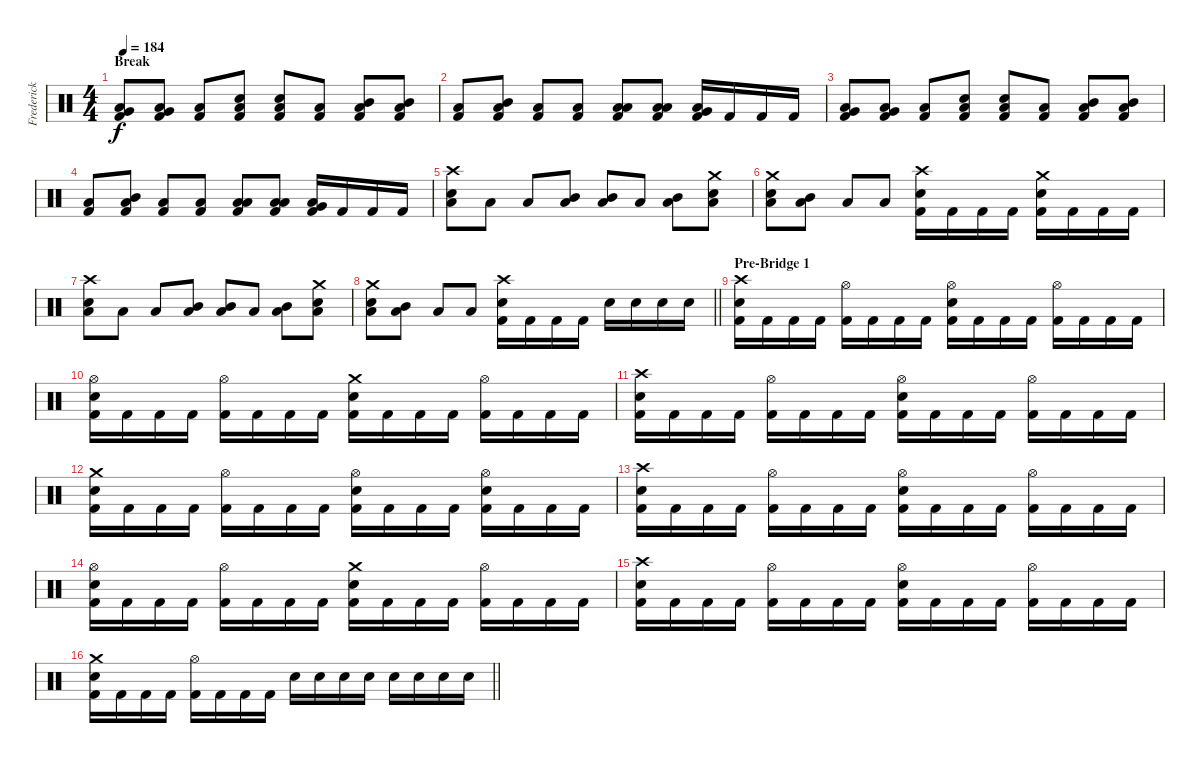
\track ("Frederick Ehmke" "Frederick ") {instrument percussion}
\staff {score}
\articulation defaults
\ts (4 4)
\section ("" "Break")
\tempo 184
\clef neutral
\ks c
("Kick (hit) 2" "Very Low Tom (hit)" "Low Floor Tom (hit)").8{dy f} ("Kick (hit) 2" "Very Low Tom (hit)" "Low Floor Tom (hit)").8 ("Kick (hit) 2" "Low Floor Tom (hit)").8 ("Electric Snare (hit)" "Kick (hit) 2" "Low Floor Tom (hit)").8 ("Electric Snare (hit)" "Kick (hit) 2" "Low Floor Tom (hit)").8 ("Kick (hit) 2" "Low Floor Tom (hit)").8 ("Kick (hit) 2" "Mid Tom (hit)" "Low Floor Tom (hit)").8 ("Kick (hit) 2" "Mid Tom (hit)" "Low Floor Tom (hit)").8 |
("Kick (hit) 2" "Low Floor Tom (hit)").8 ("Kick (hit) 2" "Mid Tom (hit)" "Low Floor Tom (hit)").8 ("Kick (hit) 2" "Low Floor Tom (hit)").8 ("Kick (hit) 2" "Low Floor Tom (hit)").8 ("Kick (hit) 2" "Low Tom (hit)" "Low Floor Tom (hit)").8 ("Kick (hit) 2" "Low Tom (hit)" "Low Floor Tom (hit)").8 ("Kick (hit) 2" "Very Low Tom (hit)" "Low Floor Tom (hit)").16 "Kick (hit) 2".16 "Kick (hit) 2".16 "Kick (hit) 2".16 |
("Kick (hit) 2" "Very Low Tom (hit)" "Low Floor Tom (hit)").8 ("Kick (hit) 2" "Very Low Tom (hit)" "Low Floor Tom (hit)").8 ("Kick (hit) 2" "Low Floor Tom (hit)").8 ("Electric Snare (hit)" "Kick (hit) 2" "Low Floor Tom (hit)").8 ("Electric Snare (hit)" "Kick (hit) 2" "Low Floor Tom (hit)").8 ("Kick (hit) 2" "Low Floor Tom (hit)").8 ("Kick (hit) 2" "Mid Tom (hit)" "Low Floor Tom (hit)").8 ("Kick (hit) 2" "Mid Tom (hit)" "Low Floor Tom (hit)").8 |
("Kick (hit) 2" "Low Floor Tom (hit)").8 ("Kick (hit) 2" "Mid Tom (hit)" "Low Floor Tom (hit)").8 ("Kick (hit) 2" "Low Floor Tom (hit)").8 ("Kick (hit) 2" "Low Floor Tom (hit)").8 ("Kick (hit) 2" "Low Tom (hit)" "Low Floor Tom (hit)").8 ("Kick (hit) 2" "Low Tom (hit)" "Low Floor Tom (hit)").8 ("Kick (hit) 2" "Very Low Tom (hit)" "Low Floor Tom (hit)").16 "Kick (hit) 2".16 "Kick (hit) 2".16 "Kick (hit) 2".16 |
("Electric Snare (hit)" "Crash high (hit)" "Low Floor Tom (hit)").8 "Low Floor Tom (hit)".8 "Low Floor Tom (hit)".8 ("Mid Tom (hit)" "Low Floor Tom (hit)").8 ("Mid Tom (hit)" "Low Floor Tom (hit)").8 "Low Floor Tom (hit)".8 ("Mid Tom (hit)" "Low Floor Tom (hit)").8 ("Electric Snare (hit)" "Crash medium (hit)" "Low Floor Tom (hit)").8 |
("Electric Snare (hit)" "Crash medium (hit)" "Low Floor Tom (hit)").8 ("Mid Tom (hit)" "Low Floor Tom (hit)").8 "Low Floor Tom (hit)".8 "Low Floor Tom (hit)".8 ("Electric Snare (hit)" "Kick (hit) 2" "Crash high (hit)").16 "Kick (hit) 2".16 "Kick (hit) 2".16 "Kick (hit) 2".16 ("Electric Snare (hit)" "Kick (hit) 2" "Crash medium (hit)").16 "Kick (hit) 2".16 "Kick (hit) 2".16 "Kick (hit) 2".16 |
("Electric Snare (hit)" "Crash high (hit)" "Low Floor Tom (hit)").8 "Low Floor Tom (hit)".8 "Low Floor Tom (hit)".8 ("Mid Tom (hit)" "Low Floor Tom (hit)").8 ("Mid Tom (hit)" "Low Floor Tom (hit)").8 "Low Floor Tom (hit)".8 ("Mid Tom (hit)" "Low Floor Tom (hit)").8 ("Electric Snare (hit)" "Crash medium (hit)" "Low Floor Tom (hit)").8 |
\barLineRight lightlight
("Electric Snare (hit)" "Crash medium (hit)" "Low Floor Tom (hit)").8 ("Mid Tom (hit)" "Low Floor Tom (hit)").8 "Low Floor Tom (hit)".8 "Low Floor Tom (hit)".8 ("Electric Snare (hit)" "Kick (hit) 2" "Crash high (hit)").16 "Kick (hit) 2".16 "Kick (hit) 2".16 "Kick (hit) 2".16 "Electric Snare (hit)".16 "Electric Snare (hit)".16 "Electric Snare (hit)".16 "Electric Snare (hit)".16 |
\section ("" "Pre-Bridge 1")
("Electric Snare (hit)" "Kick (hit) 2" "Crash high (hit)").16 "Kick (hit) 2".16 "Kick (hit) 2".16 "Kick (hit) 2".16 ("Kick (hit) 2" "Hi-Hat (open)").16 "Kick (hit) 2".16 "Kick (hit) 2".16 "Kick (hit) 2".16 ("Electric Snare (hit)" "Kick (hit) 2" "Hi-Hat (open)").16 "Kick (hit) 2".16 "Kick (hit) 2".16 "Kick (hit) 2".16 ("Kick (hit) 2" "Hi-Hat (open)").16 "Kick (hit) 2".16 "Kick (hit) 2".16 "Kick (hit) 2".16 |
("Electric Snare (hit)" "Kick (hit) 2" "Hi-Hat (open)").16 "Kick (hit) 2".16 "Kick (hit) 2".16 "Kick (hit) 2".16 ("Kick (hit) 2" "Hi-Hat (open)").16 "Kick (hit) 2".16 "Kick (hit) 2".16 "Kick (hit) 2".16 ("Electric Snare (hit)" "Kick (hit) 2" "Crash medium (hit)").16 "Kick (hit) 2".16 "Kick (hit) 2".16 "Kick (hit) 2".16 ("Kick (hit) 2" "Hi-Hat (open)").16 "Kick (hit) 2".16 "Kick (hit) 2".16 "Kick (hit) 2".16 |
("Electric Snare (hit)" "Kick (hit) 2" "Crash high (hit)").16 "Kick (hit) 2".16 "Kick (hit) 2".16 "Kick (hit) 2".16 ("Kick (hit) 2" "Hi-Hat (open)").16 "Kick (hit) 2".16 "Kick (hit) 2".16 "Kick (hit) 2".16 ("Electric Snare (hit)" "Kick (hit) 2" "Hi-Hat (open)").16 "Kick (hit) 2".16 "Kick (hit) 2".16 "Kick (hit) 2".16 ("Kick (hit) 2" "Hi-Hat (open)").16 "Kick (hit) 2".16 "Kick (hit) 2".16 "Kick (hit) 2".16 |
("Electric Snare (hit)" "Kick (hit) 2" "Crash medium (hit)").16 "Kick (hit) 2".16 "Kick (hit) 2".16 "Kick (hit) 2".16 ("Kick (hit) 2" "Hi-Hat (open)").16 "Kick (hit) 2".16 "Kick (hit) 2".16 "Kick (hit) 2".16 ("Electric Snare (hit)" "Kick (hit) 2" "Hi-Hat (open)").16 "Kick (hit) 2".16 "Kick (hit) 2".16 "Kick (hit) 2".16 ("Electric Snare (hit)" "Kick (hit) 2" "Hi-Hat (open)").16 "Kick (hit) 2".16 "Kick (hit) 2".16 "Kick (hit) 2".16 |
("Electric Snare (hit)" "Kick (hit) 2" "Crash high (hit)").16 "Kick (hit) 2".16 "Kick (hit) 2".16 "Kick (hit) 2".16 ("Kick (hit) 2" "Hi-Hat (open)").16 "Kick (hit) 2".16 "Kick (hit) 2".16 "Kick (hit) 2".16 ("Electric Snare (hit)" "Kick (hit) 2" "Hi-Hat (open)").16 "Kick (hit) 2".16 "Kick (hit) 2".16 "Kick (hit) 2".16 ("Kick (hit) 2" "Hi-Hat (open)").16 "Kick (hit) 2".16 "Kick (hit) 2".16 "Kick (hit) 2".16 |
("Electric Snare (hit)" "Kick (hit) 2" "Hi-Hat (open)").16 "Kick (hit) 2".16 "Kick (hit) 2".16 "Kick (hit) 2".16 ("Kick (hit) 2" "Hi-Hat (open)").16 "Kick (hit) 2".16 "Kick (hit) 2".16 "Kick (hit) 2".16 ("Electric Snare (hit)" "Kick (hit) 2" "Crash medium (hit)").16 "Kick (hit) 2".16 "Kick (hit) 2".16 "Kick (hit) 2".16 ("Kick (hit) 2" "Hi-Hat (open)").16 "Kick (hit) 2".16 "Kick (hit) 2".16 "Kick (hit) 2".16 |
("Electric Snare (hit)" "Kick (hit) 2" "Crash high (hit)").16 "Kick (hit) 2".16 "Kick (hit) 2".16 "Kick (hit) 2".16 ("Kick (hit) 2" "Hi-Hat (open)").16 "Kick (hit) 2".16 "Kick (hit) 2".16 "Kick (hit) 2".16 ("Electric Snare (hit)" "Kick (hit) 2" "Hi-Hat (open)").16 "Kick (hit) 2".16 "Kick (hit) 2".16 "Kick (hit) 2".16 ("Kick (hit) 2" "Hi-Hat (open)").16 "Kick (hit) 2".16 "Kick (hit) 2".16 "Kick (hit) 2".16 |
\barLineRight lightlight
("Electric Snare (hit)" "Kick (hit) 2" "Crash medium (hit)").16 "Kick (hit) 2".16 "Kick (hit) 2".16 "Kick (hit) 2".16 ("Kick (hit) 2" "Hi-Hat (open)").16 "Kick (hit) 2".16 "Kick (hit) 2".16 "Kick (hit) 2".16 "Electric Snare (hit)".16 "Electric Snare (hit)".16 "Electric Snare (hit)".16 "Electric Snare (hit)".16 "Electric Snare (hit)".16 "Electric Snare (hit)".16 "Electric Snare (hit)".16 "Electric Snare (hit)".16
